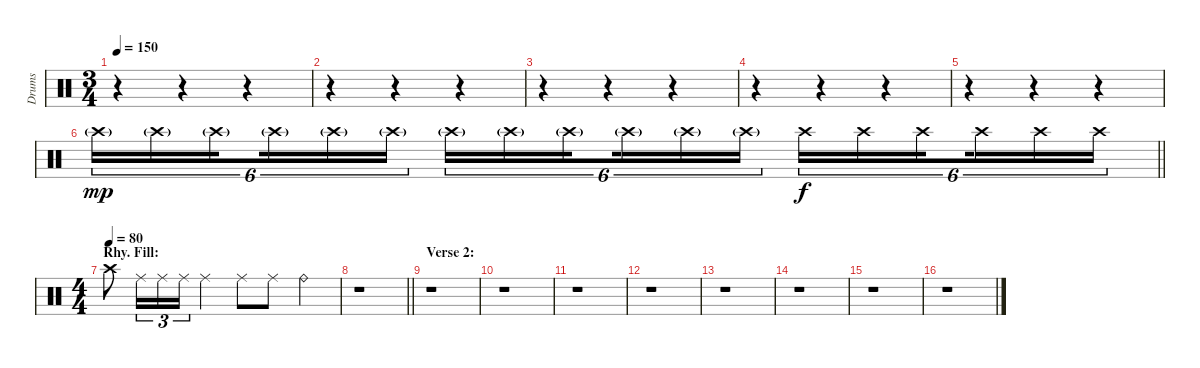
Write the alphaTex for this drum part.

\track ("Drums" "Drums") {instrument percussion}
\staff {score}
\articulation defaults
\ts (3 4)
\tempo 150
\clef neutral
\ks c
r.4{dy mp} r.4 r.4 |
r.4 r.4 r.4 |
r.4 r.4 r.4 |
r.4 r.4 r.4 |
r.4 r.4 r.4 |
\barLineRight lightlight "Crash high (hit)"{g}.16{tu (6 4)} "Crash high (hit)"{g}.16{tu (6 4)} "Crash high (hit)"{g}.16{tu (6 4) beam splitsecondary} "Crash high (hit)"{g}.16{tu (6 4)} "Crash high (hit)"{g}.16{tu (6 4)} "Crash high (hit)"{g}.16{tu (6 4)} "Crash high (hit)"{g}.16{tu (6 4)} "Crash high (hit)"{g}.16{tu (6 4)} "Crash high (hit)"{g}.16{tu (6 4) beam splitsecondary} "Crash high (hit)"{g}.16{tu (6 4)} "Crash high (hit)"{g}.16{tu (6 4)} "Crash high (hit)"{g}.16{tu (6 4)} "Crash high (hit)".16{tu (6 4) dy f} "Crash high (hit)".16{tu (6 4)} "Crash high (hit)".16{tu (6 4) beam splitsecondary} "Crash high (hit)".16{tu (6 4)} "Crash high (hit)".16{tu (6 4)} "Crash high (hit)".16{tu (6 4)}
|
\ts (4 4)
\section ("" "Rhy. Fill:")
\tempo (80)
"Crash high (hit)".8 "Ride (middle)".16{tu (3 2)} "Ride (middle)".16{tu (3 2)} "Ride (middle)".16{tu (3 2)} "Ride (middle)".4 "Ride (middle)".8 "Ride (middle)".8 "Ride (bell)".4 |
\barLineRight lightlight
r.1 |
\section ("" "Verse 2:")
r.1 |
r.1 |
r.1 |
r.1 |
r.1 |
r.1 |
r.1 |
r.1
